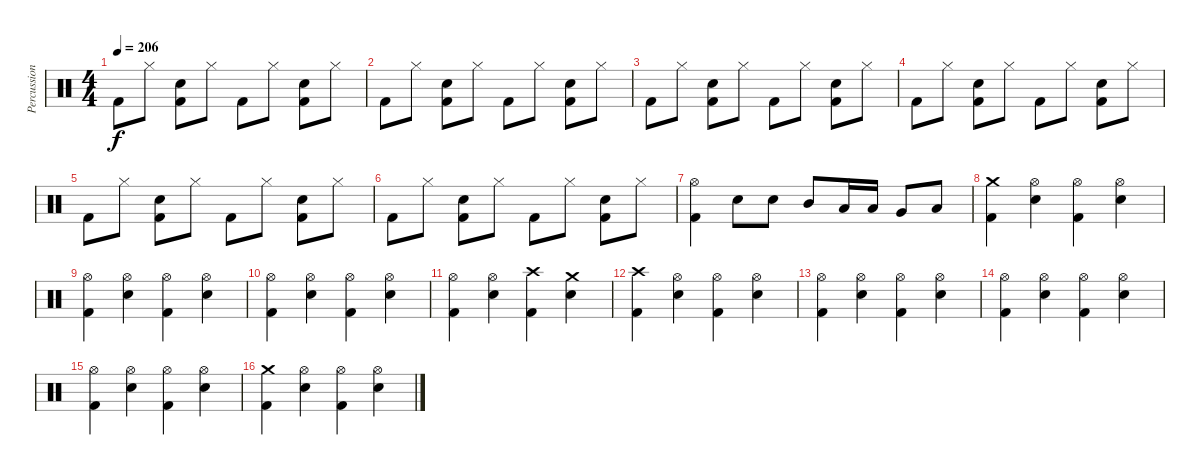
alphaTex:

\track ("Percussion" "Percussion") {instrument percussion}
\staff {score}
\articulation defaults
\ts (4 4)
\tempo 206
\clef neutral
\ks c "Kick (hit) 2".8{dy f} "Hi-Hat (closed)".8
("Electric Snare (hit)" "Kick (hit) 2").8 "Hi-Hat (closed)".8 "Kick (hit) 2".8 "Hi-Hat (closed)".8 ("Electric Snare (hit)" "Kick (hit) 2").8 "Hi-Hat (closed)".8 |
"Kick (hit) 2".8 "Hi-Hat (closed)".8 ("Electric Snare (hit)" "Kick (hit) 2").8 "Hi-Hat (closed)".8 "Kick (hit) 2".8 "Hi-Hat (closed)".8 ("Electric Snare (hit)" "Kick (hit) 2").8 "Hi-Hat (closed)".8 |
"Kick (hit) 2".8 "Hi-Hat (closed)".8 ("Electric Snare (hit)" "Kick (hit) 2").8 "Hi-Hat (closed)".8 "Kick (hit) 2".8 "Hi-Hat (closed)".8 ("Electric Snare (hit)" "Kick (hit) 2").8 "Hi-Hat (closed)".8 |
"Kick (hit) 2".8 "Hi-Hat (closed)".8 ("Electric Snare (hit)" "Kick (hit) 2").8 "Hi-Hat (closed)".8 "Kick (hit) 2".8 "Hi-Hat (closed)".8 ("Electric Snare (hit)" "Kick (hit) 2").8 "Hi-Hat (closed)".8 |
"Kick (hit) 2".8 "Hi-Hat (closed)".8 ("Electric Snare (hit)" "Kick (hit) 2").8 "Hi-Hat (closed)".8 "Kick (hit) 2".8 "Hi-Hat (closed)".8 ("Electric Snare (hit)" "Kick (hit) 2").8 "Hi-Hat (closed)".8 |
"Kick (hit) 2".8 "Hi-Hat (closed)".8 ("Electric Snare (hit)" "Kick (hit) 2").8 "Hi-Hat (closed)".8 "Kick (hit) 2".8 "Hi-Hat (closed)".8 ("Electric Snare (hit)" "Kick (hit) 2").8 "Hi-Hat (closed)".8 |
("Hi-Hat (open)" "Kick (hit) 2").4 "Electric Snare (hit)".8 "Electric Snare (hit)".8 "Mid Tom (hit)".8 "Low Tom (hit)".16 "Low Tom (hit)".16 "Very Low Tom (hit)".8 "Low Floor Tom (hit)".8 |
("Crash medium (hit)" "Kick (hit) 2").4 ("Hi-Hat (open)" "Electric Snare (hit)").4 ("Hi-Hat (open)" "Kick (hit) 2").4 ("Hi-Hat (open)" "Electric Snare (hit)").4 |
("Hi-Hat (open)" "Kick (hit) 2").4 ("Hi-Hat (open)" "Electric Snare (hit)").4 ("Hi-Hat (open)" "Kick (hit) 2").4 ("Hi-Hat (open)" "Electric Snare (hit)").4 |
("Hi-Hat (open)" "Kick (hit) 2").4 ("Hi-Hat (open)" "Electric Snare (hit)").4 ("Hi-Hat (open)" "Kick (hit) 2").4 ("Hi-Hat (open)" "Electric Snare (hit)").4 |
("Hi-Hat (open)" "Kick (hit) 2").4 ("Hi-Hat (open)" "Electric Snare (hit)").4 ("Crash high (hit)" "Kick (hit) 2").4 ("Crash medium (hit)" "Electric Snare (hit)").4 |
("Crash high (hit)" "Kick (hit) 2").4 ("Hi-Hat (open)" "Electric Snare (hit)").4 ("Hi-Hat (open)" "Kick (hit) 2").4 ("Hi-Hat (open)" "Electric Snare (hit)").4 |
("Hi-Hat (open)" "Kick (hit) 2").4 ("Hi-Hat (open)" "Electric Snare (hit)").4 ("Hi-Hat (open)" "Kick (hit) 2").4 ("Hi-Hat (open)" "Electric Snare (hit)").4 |
("Hi-Hat (open)" "Kick (hit) 2").4 ("Hi-Hat (open)" "Electric Snare (hit)").4 ("Hi-Hat (open)" "Kick (hit) 2").4 ("Hi-Hat (open)" "Electric Snare (hit)").4 |
("Hi-Hat (open)" "Kick (hit) 2").4 ("Hi-Hat (open)" "Electric Snare (hit)").4 ("Hi-Hat (open)" "Kick (hit) 2").4 ("Hi-Hat (open)" "Electric Snare (hit)").4 |
("Crash medium (hit)" "Kick (hit) 2").4 ("Hi-Hat (open)" "Electric Snare (hit)").4 ("Hi-Hat (open)" "Kick (hit) 2").4 ("Hi-Hat (open)" "Electric Snare (hit)").4
